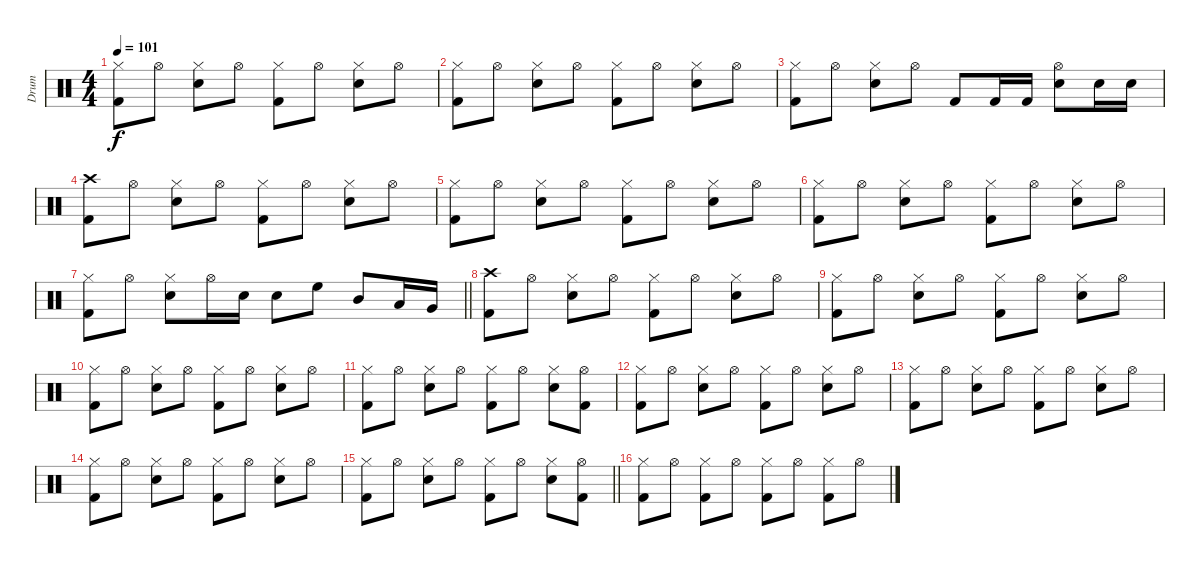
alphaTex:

\track ("Drum" "Drum") {instrument percussion}
\staff {score}
\articulation defaults
\ts (4 4)
\tempo 101
\clef neutral
\ks c
("Hi-Hat (closed)" "Kick (hit) 2").8{dy f} "Hi-Hat (open)".8 ("Hi-Hat (closed)" "Snare (hit) 2").8 "Hi-Hat (open)".8 ("Hi-Hat (closed)" "Kick (hit) 2").8 "Hi-Hat (open)".8 ("Hi-Hat (closed)" "Snare (hit) 2").8 "Hi-Hat (open)".8 |
("Hi-Hat (closed)" "Kick (hit) 2").8 "Hi-Hat (open)".8 ("Hi-Hat (closed)" "Snare (hit) 2").8 "Hi-Hat (open)".8 ("Hi-Hat (closed)" "Kick (hit) 2").8 "Hi-Hat (open)".8 ("Hi-Hat (closed)" "Snare (hit) 2").8 "Hi-Hat (open)".8 |
("Hi-Hat (closed)" "Kick (hit) 2").8 "Hi-Hat (open)".8 ("Hi-Hat (closed)" "Snare (hit) 2").8 "Hi-Hat (open)".8 "Kick (hit) 2".8 "Kick (hit) 2".16 "Kick (hit) 2".16 ("Hi-Hat (open)" "Snare (hit) 2").8 "Snare (hit) 2".16 "Snare (hit) 2".16 |
("Crash high (hit)" "Kick (hit) 2").8 "Hi-Hat (open)".8 ("Hi-Hat (closed)" "Snare (hit) 2").8 "Hi-Hat (open)".8 ("Hi-Hat (closed)" "Kick (hit) 2").8 "Hi-Hat (open)".8 ("Hi-Hat (closed)" "Snare (hit) 2").8 "Hi-Hat (open)".8 |
("Hi-Hat (closed)" "Kick (hit) 2").8 "Hi-Hat (open)".8 ("Hi-Hat (closed)" "Snare (hit) 2").8 "Hi-Hat (open)".8 ("Hi-Hat (closed)" "Kick (hit) 2").8 "Hi-Hat (open)".8 ("Hi-Hat (closed)" "Snare (hit) 2").8 "Hi-Hat (open)".8 |
("Hi-Hat (closed)" "Kick (hit) 2").8 "Hi-Hat (open)".8 ("Hi-Hat (closed)" "Snare (hit) 2").8 "Hi-Hat (open)".8 ("Hi-Hat (closed)" "Kick (hit) 2").8 "Hi-Hat (open)".8 ("Hi-Hat (closed)" "Snare (hit) 2").8 "Hi-Hat (open)".8 |
\barLineRight lightlight
("Hi-Hat (closed)" "Kick (hit) 2").8 "Hi-Hat (open)".8 ("Hi-Hat (closed)" "Snare (hit) 2").8 "Hi-Hat (open)".16 "Snare (hit) 2".16 "Snare (hit) 2".8 "High Floor Tom (hit)".8 "Mid Tom (hit)".8 "Low Tom (hit)".16 "Very Low Tom (hit)".16 |
("Crash high (hit)" "Kick (hit) 2").8 "Hi-Hat (open)".8 ("Hi-Hat (closed)" "Snare (hit) 2").8 "Hi-Hat (open)".8 ("Hi-Hat (closed)" "Kick (hit) 2").8 "Hi-Hat (open)".8 ("Hi-Hat (closed)" "Snare (hit) 2").8 "Hi-Hat (open)".8 |
("Hi-Hat (closed)" "Kick (hit) 2").8 "Hi-Hat (open)".8 ("Hi-Hat (closed)" "Snare (hit) 2").8 "Hi-Hat (open)".8 ("Hi-Hat (closed)" "Kick (hit) 2").8 "Hi-Hat (open)".8 ("Hi-Hat (closed)" "Snare (hit) 2").8 "Hi-Hat (open)".8 |
("Hi-Hat (closed)" "Kick (hit) 2").8 "Hi-Hat (open)".8 ("Hi-Hat (closed)" "Snare (hit) 2").8 "Hi-Hat (open)".8 ("Hi-Hat (closed)" "Kick (hit) 2").8 "Hi-Hat (open)".8 ("Hi-Hat (closed)" "Snare (hit) 2").8 "Hi-Hat (open)".8 |
("Hi-Hat (closed)" "Kick (hit) 2").8 "Hi-Hat (open)".8 ("Hi-Hat (closed)" "Snare (hit) 2").8 "Hi-Hat (open)".8 ("Hi-Hat (closed)" "Kick (hit) 2").8 "Hi-Hat (open)".8 ("Hi-Hat (closed)" "Snare (hit) 2").8 ("Hi-Hat (open)" "Kick (hit) 2").8 |
("Hi-Hat (closed)" "Kick (hit) 2").8 "Hi-Hat (open)".8 ("Hi-Hat (closed)" "Snare (hit) 2").8 "Hi-Hat (open)".8 ("Hi-Hat (closed)" "Kick (hit) 2").8 "Hi-Hat (open)".8 ("Hi-Hat (closed)" "Snare (hit) 2").8 "Hi-Hat (open)".8 |
("Hi-Hat (closed)" "Kick (hit) 2").8 "Hi-Hat (open)".8 ("Hi-Hat (closed)" "Snare (hit) 2").8 "Hi-Hat (open)".8 ("Hi-Hat (closed)" "Kick (hit) 2").8 "Hi-Hat (open)".8 ("Hi-Hat (closed)" "Snare (hit) 2").8 "Hi-Hat (open)".8 |
("Hi-Hat (closed)" "Kick (hit) 2").8 "Hi-Hat (open)".8 ("Hi-Hat (closed)" "Snare (hit) 2").8 "Hi-Hat (open)".8 ("Hi-Hat (closed)" "Kick (hit) 2").8 "Hi-Hat (open)".8 ("Hi-Hat (closed)" "Snare (hit) 2").8 "Hi-Hat (open)".8 |
\barLineRight lightlight
("Hi-Hat (closed)" "Kick (hit) 2").8 "Hi-Hat (open)".8 ("Hi-Hat (closed)" "Snare (hit) 2").8 "Hi-Hat (open)".8 ("Hi-Hat (closed)" "Kick (hit) 2").8 "Hi-Hat (open)".8 ("Hi-Hat (closed)" "Snare (hit) 2").8 ("Hi-Hat (open)" "Kick (hit) 2").8 |
("Hi-Hat (closed)" "Kick (hit) 2").8 "Hi-Hat (open)".8 ("Hi-Hat (closed)" "Kick (hit) 2").8 "Hi-Hat (open)".8 ("Hi-Hat (closed)" "Kick (hit) 2").8 "Hi-Hat (open)".8 ("Hi-Hat (closed)" "Kick (hit) 2").8 "Hi-Hat (open)".8
